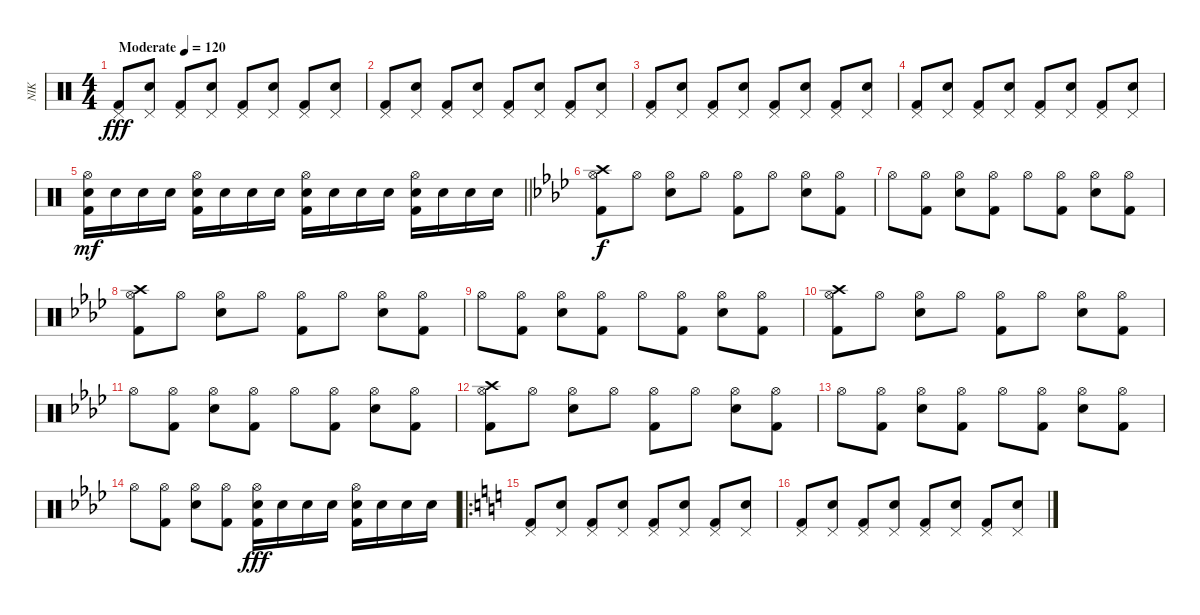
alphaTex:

\track ("NIK" "NIK") {instrument percussion}
\staff {score}
\articulation defaults
\ts (4 4)
\tempo (120 "Moderate")
\tempo 175
\tempo (120 "Moderate")
\clef neutral
\ks c
("Pedal Hi-Hat (hit)" "Kick (hit) 2").8{dy fff} ("Pedal Hi-Hat (hit)" "Electric Snare (hit)").8 ("Pedal Hi-Hat (hit)" "Kick (hit) 2").8 ("Pedal Hi-Hat (hit)" "Electric Snare (hit)").8 ("Pedal Hi-Hat (hit)" "Kick (hit) 2").8 ("Pedal Hi-Hat (hit)" "Electric Snare (hit)").8 ("Pedal Hi-Hat (hit)" "Kick (hit) 2").8 ("Pedal Hi-Hat (hit)" "Electric Snare (hit)").8 |
("Pedal Hi-Hat (hit)" "Kick (hit) 2").8 ("Pedal Hi-Hat (hit)" "Electric Snare (hit)").8 ("Pedal Hi-Hat (hit)" "Kick (hit) 2").8 ("Pedal Hi-Hat (hit)" "Electric Snare (hit)").8 ("Pedal Hi-Hat (hit)" "Kick (hit) 2").8 ("Pedal Hi-Hat (hit)" "Electric Snare (hit)").8 ("Pedal Hi-Hat (hit)" "Kick (hit) 2").8 ("Pedal Hi-Hat (hit)" "Electric Snare (hit)").8 |
("Pedal Hi-Hat (hit)" "Kick (hit) 2").8 ("Pedal Hi-Hat (hit)" "Electric Snare (hit)").8 ("Pedal Hi-Hat (hit)" "Kick (hit) 2").8 ("Pedal Hi-Hat (hit)" "Electric Snare (hit)").8 ("Pedal Hi-Hat (hit)" "Kick (hit) 2").8 ("Pedal Hi-Hat (hit)" "Electric Snare (hit)").8 ("Pedal Hi-Hat (hit)" "Kick (hit) 2").8 ("Pedal Hi-Hat (hit)" "Electric Snare (hit)").8 |
("Pedal Hi-Hat (hit)" "Kick (hit) 2").8 ("Pedal Hi-Hat (hit)" "Electric Snare (hit)").8 ("Pedal Hi-Hat (hit)" "Kick (hit) 2").8 ("Pedal Hi-Hat (hit)" "Electric Snare (hit)").8 ("Pedal Hi-Hat (hit)" "Kick (hit) 2").8 ("Pedal Hi-Hat (hit)" "Electric Snare (hit)").8 ("Pedal Hi-Hat (hit)" "Kick (hit) 2").8 ("Pedal Hi-Hat (hit)" "Electric Snare (hit)").8 |
\barLineRight lightlight
("Hi-Hat (open)" "Electric Snare (hit)" "Kick (hit) 2").16{dy mf} "Electric Snare (hit)".16 "Electric Snare (hit)".16 "Electric Snare (hit)".16 ("Hi-Hat (open)" "Electric Snare (hit)" "Kick (hit) 2").16 "Electric Snare (hit)".16 "Electric Snare (hit)".16 "Electric Snare (hit)".16 ("Hi-Hat (open)" "Electric Snare (hit)" "Kick (hit) 2").16 "Electric Snare (hit)".16 "Electric Snare (hit)".16 "Electric Snare (hit)".16 ("Hi-Hat (open)" "Electric Snare (hit)" "Kick (hit) 2").16 "Electric Snare (hit)".16 "Electric Snare (hit)".16 "Electric Snare (hit)".16 |
\ks ab
("Crash high (hit)" "Hi-Hat (open)" "Kick (hit) 2").8{dy f} "Hi-Hat (open)".8 ("Hi-Hat (open)" "Electric Snare (hit)").8 "Hi-Hat (open)".8 ("Hi-Hat (open)" "Kick (hit) 2").8 "Hi-Hat (open)".8 ("Hi-Hat (open)" "Electric Snare (hit)").8 ("Hi-Hat (open)" "Kick (hit) 2").8 |
"Hi-Hat (open)".8 ("Hi-Hat (open)" "Kick (hit) 2").8 ("Hi-Hat (open)" "Electric Snare (hit)").8 ("Hi-Hat (open)" "Kick (hit) 2").8 "Hi-Hat (open)".8 ("Hi-Hat (open)" "Kick (hit) 2").8 ("Hi-Hat (open)" "Electric Snare (hit)").8 ("Hi-Hat (open)" "Kick (hit) 2").8 |
("Crash high (hit)" "Hi-Hat (open)" "Kick (hit) 2").8 "Hi-Hat (open)".8 ("Hi-Hat (open)" "Electric Snare (hit)").8 "Hi-Hat (open)".8 ("Hi-Hat (open)" "Kick (hit) 2").8 "Hi-Hat (open)".8 ("Hi-Hat (open)" "Electric Snare (hit)").8 ("Hi-Hat (open)" "Kick (hit) 2").8 |
"Hi-Hat (open)".8 ("Hi-Hat (open)" "Kick (hit) 2").8 ("Hi-Hat (open)" "Electric Snare (hit)").8 ("Hi-Hat (open)" "Kick (hit) 2").8 "Hi-Hat (open)".8 ("Hi-Hat (open)" "Kick (hit) 2").8 ("Hi-Hat (open)" "Electric Snare (hit)").8 ("Hi-Hat (open)" "Kick (hit) 2").8 |
("Crash high (hit)" "Hi-Hat (open)" "Kick (hit) 2").8 "Hi-Hat (open)".8 ("Hi-Hat (open)" "Electric Snare (hit)").8 "Hi-Hat (open)".8 ("Hi-Hat (open)" "Kick (hit) 2").8 "Hi-Hat (open)".8 ("Hi-Hat (open)" "Electric Snare (hit)").8 ("Hi-Hat (open)" "Kick (hit) 2").8 |
"Hi-Hat (open)".8 ("Hi-Hat (open)" "Kick (hit) 2").8 ("Hi-Hat (open)" "Electric Snare (hit)").8 ("Hi-Hat (open)" "Kick (hit) 2").8 "Hi-Hat (open)".8 ("Hi-Hat (open)" "Kick (hit) 2").8 ("Hi-Hat (open)" "Electric Snare (hit)").8 ("Hi-Hat (open)" "Kick (hit) 2").8 |
("Crash high (hit)" "Hi-Hat (open)" "Kick (hit) 2").8 "Hi-Hat (open)".8 ("Hi-Hat (open)" "Electric Snare (hit)").8 "Hi-Hat (open)".8 ("Hi-Hat (open)" "Kick (hit) 2").8 "Hi-Hat (open)".8 ("Hi-Hat (open)" "Electric Snare (hit)").8 ("Hi-Hat (open)" "Kick (hit) 2").8 |
"Hi-Hat (open)".8 ("Hi-Hat (open)" "Kick (hit) 2").8 ("Hi-Hat (open)" "Electric Snare (hit)").8 ("Hi-Hat (open)" "Kick (hit) 2").8 "Hi-Hat (open)".8 ("Hi-Hat (open)" "Kick (hit) 2").8 ("Hi-Hat (open)" "Electric Snare (hit)").8 ("Hi-Hat (open)" "Kick (hit) 2").8 |
"Hi-Hat (open)".8 ("Hi-Hat (open)" "Kick (hit) 2").8 ("Hi-Hat (open)" "Electric Snare (hit)").8 ("Hi-Hat (open)" "Kick (hit) 2").8 ("Hi-Hat (open)" "Electric Snare (hit)" "Kick (hit) 2").16{dy fff} "Electric Snare (hit)".16 "Electric Snare (hit)".16 "Electric Snare (hit)".16 ("Hi-Hat (open)" "Electric Snare (hit)" "Kick (hit) 2").16 "Electric Snare (hit)".16 "Electric Snare (hit)".16 "Electric Snare (hit)".16 |
\ro
\ks c
("Pedal Hi-Hat (hit)" "Kick (hit) 2").8 ("Pedal Hi-Hat (hit)" "Electric Snare (hit)").8 ("Pedal Hi-Hat (hit)" "Kick (hit) 2").8 ("Pedal Hi-Hat (hit)" "Electric Snare (hit)").8 ("Pedal Hi-Hat (hit)" "Kick (hit) 2").8 ("Pedal Hi-Hat (hit)" "Electric Snare (hit)").8 ("Pedal Hi-Hat (hit)" "Kick (hit) 2").8 ("Pedal Hi-Hat (hit)" "Electric Snare (hit)").8 |
("Pedal Hi-Hat (hit)" "Kick (hit) 2").8 ("Pedal Hi-Hat (hit)" "Electric Snare (hit)").8 ("Pedal Hi-Hat (hit)" "Kick (hit) 2").8 ("Pedal Hi-Hat (hit)" "Electric Snare (hit)").8 ("Pedal Hi-Hat (hit)" "Kick (hit) 2").8 ("Pedal Hi-Hat (hit)" "Electric Snare (hit)").8 ("Pedal Hi-Hat (hit)" "Kick (hit) 2").8 ("Pedal Hi-Hat (hit)" "Electric Snare (hit)").8
